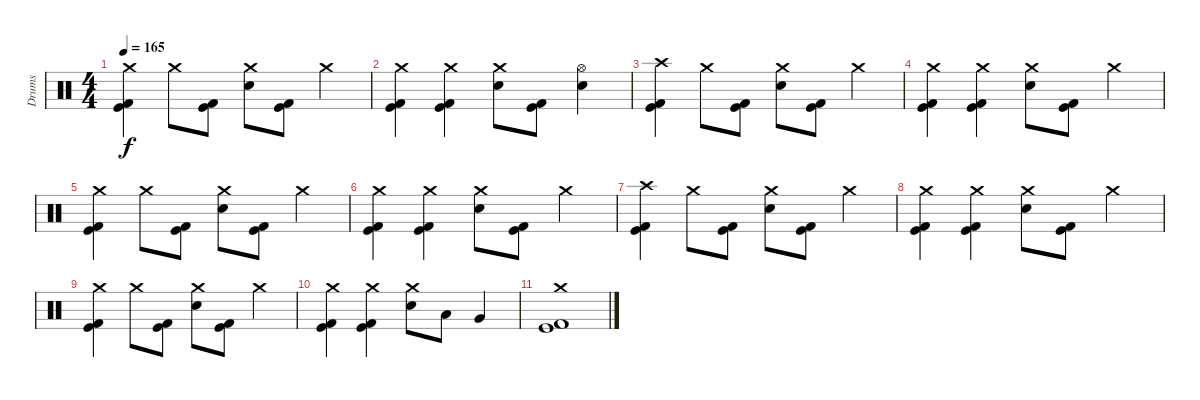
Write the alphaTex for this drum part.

\track ("Drums" "Drums") {instrument percussion}
\staff {score}
\articulation defaults
\ts (4 4)
\tempo 165
\clef neutral
\ks c
("Crash medium (hit)" "Kick (hit) 2" "Kick (hit)").4{dy f} "Crash medium (hit)".8 ("Kick (hit)" "Kick (hit) 2").8 ("Crash medium (hit)" "Electric Snare (hit)").8 ("Kick (hit)" "Kick (hit) 2").8 "Crash medium (hit)".4 |
("Crash medium (hit)" "Kick (hit)" "Kick (hit) 2").4 ("Crash medium (hit)" "Kick (hit)" "Kick (hit) 2").4 ("Crash medium (hit)" "Electric Snare (hit)").8 ("Kick (hit)" "Kick (hit) 2").8 ("Hi-Hat (open)" "Electric Snare (hit)").4 |
("Crash high (hit)" "Kick (hit) 2" "Kick (hit)").4 "Crash medium (hit)".8 ("Kick (hit)" "Kick (hit) 2").8 ("Crash medium (hit)" "Electric Snare (hit)").8 ("Kick (hit)" "Kick (hit) 2").8 "Crash medium (hit)".4 |
("Crash medium (hit)" "Kick (hit)" "Kick (hit) 2").4 ("Crash medium (hit)" "Kick (hit)" "Kick (hit) 2").4 ("Crash medium (hit)" "Electric Snare (hit)").8 ("Kick (hit)" "Kick (hit) 2").8 "Crash medium (hit)".4 |
("Crash medium (hit)" "Kick (hit) 2" "Kick (hit)").4 "Crash medium (hit)".8 ("Kick (hit)" "Kick (hit) 2").8 ("Crash medium (hit)" "Electric Snare (hit)").8 ("Kick (hit)" "Kick (hit) 2").8 "Crash medium (hit)".4 |
("Crash medium (hit)" "Kick (hit)" "Kick (hit) 2").4 ("Crash medium (hit)" "Kick (hit)" "Kick (hit) 2").4 ("Crash medium (hit)" "Electric Snare (hit)").8 ("Kick (hit)" "Kick (hit) 2").8 "Crash medium (hit)".4 |
("Crash high (hit)" "Kick (hit) 2" "Kick (hit)").4 "Crash medium (hit)".8 ("Kick (hit)" "Kick (hit) 2").8 ("Crash medium (hit)" "Electric Snare (hit)").8 ("Kick (hit)" "Kick (hit) 2").8 "Crash medium (hit)".4 |
("Crash medium (hit)" "Kick (hit)" "Kick (hit) 2").4 ("Crash medium (hit)" "Kick (hit)" "Kick (hit) 2").4 ("Crash medium (hit)" "Electric Snare (hit)").8 ("Kick (hit)" "Kick (hit) 2").8 "Crash medium (hit)".4 |
("Crash medium (hit)" "Kick (hit) 2" "Kick (hit)").4 "Crash medium (hit)".8 ("Kick (hit)" "Kick (hit) 2").8 ("Crash medium (hit)" "Electric Snare (hit)").8 ("Kick (hit)" "Kick (hit) 2").8 "Crash medium (hit)".4 |
("Crash medium (hit)" "Kick (hit)" "Kick (hit) 2").4 ("Crash medium (hit)" "Kick (hit)" "Kick (hit) 2").4 ("Crash medium (hit)" "Electric Snare (hit)").8 "Low Tom (hit)".8 "Very Low Tom (hit)".4 |
("Crash medium (hit)" "Kick (hit)" "Kick (hit) 2").1
